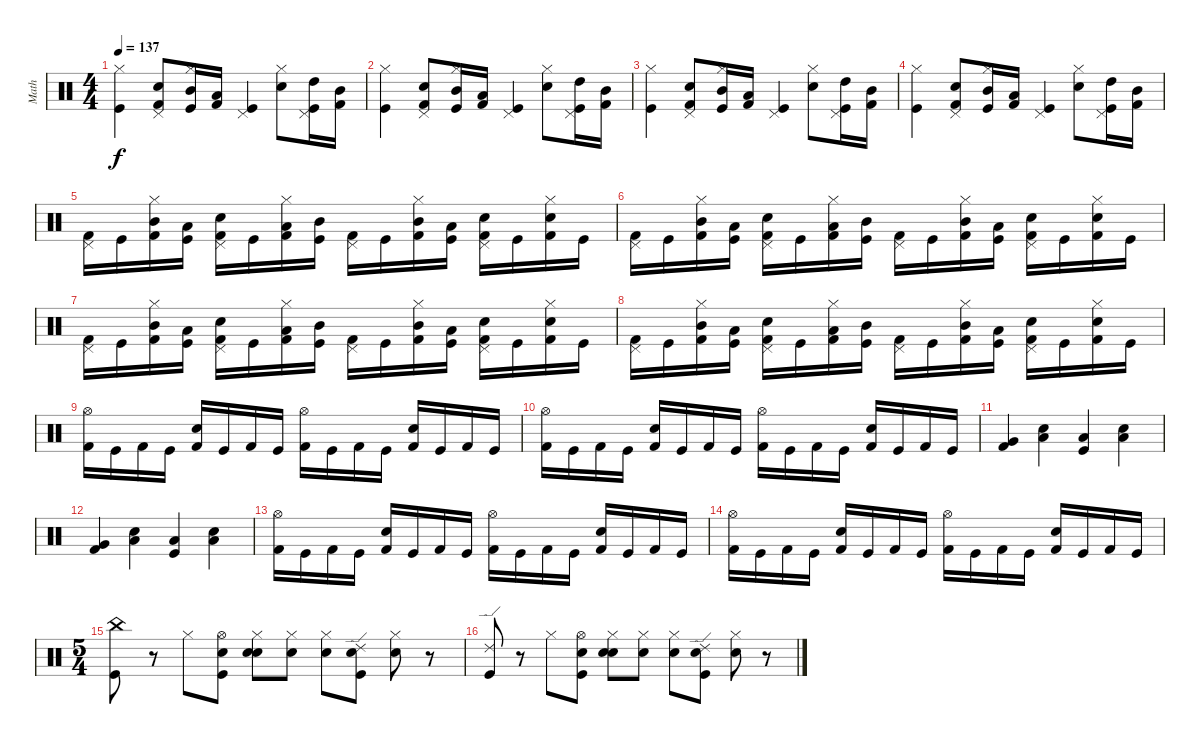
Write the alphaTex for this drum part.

\track ("Math" "Math") {instrument percussion}
\staff {score}
\articulation defaults
\ts (4 4)
\tempo 137
\clef neutral
\ks c
("Kick (hit)" "Hi-Hat (closed)").4{dy f} ("Snare (hit) 2" "Kick (hit) 2" "Pedal Hi-Hat (hit)").8 ("Mid Tom (hit)" "Kick (hit)" "Hi-Hat (closed)").16 ("Low Tom (hit)" "Kick (hit) 2").16 ("Kick (hit)" "Pedal Hi-Hat (hit)").4 ("Snare (hit) 2" "Hi-Hat (closed)").8 ("High Tom (hit)" "Kick (hit)" "Pedal Hi-Hat (hit)").16 ("Mid Tom (hit)" "Kick (hit) 2").16 |
("Kick (hit)" "Hi-Hat (closed)").4 ("Snare (hit) 2" "Kick (hit) 2" "Pedal Hi-Hat (hit)").8 ("Mid Tom (hit)" "Kick (hit)" "Hi-Hat (closed)").16 ("Low Tom (hit)" "Kick (hit) 2").16 ("Kick (hit)" "Pedal Hi-Hat (hit)").4 ("Snare (hit) 2" "Hi-Hat (closed)").8 ("High Tom (hit)" "Kick (hit)" "Pedal Hi-Hat (hit)").16 ("Mid Tom (hit)" "Kick (hit) 2").16 |
("Kick (hit)" "Hi-Hat (closed)").4 ("Snare (hit) 2" "Kick (hit) 2" "Pedal Hi-Hat (hit)").8 ("Mid Tom (hit)" "Kick (hit)" "Hi-Hat (closed)").16 ("Low Tom (hit)" "Kick (hit) 2").16 ("Kick (hit)" "Pedal Hi-Hat (hit)").4 ("Snare (hit) 2" "Hi-Hat (closed)").8 ("High Tom (hit)" "Kick (hit)" "Pedal Hi-Hat (hit)").16 ("Mid Tom (hit)" "Kick (hit) 2").16 |
("Kick (hit)" "Hi-Hat (closed)").4 ("Snare (hit) 2" "Kick (hit) 2" "Pedal Hi-Hat (hit)").8 ("Mid Tom (hit)" "Kick (hit)" "Hi-Hat (closed)").16 ("Low Tom (hit)" "Kick (hit) 2").16 ("Kick (hit)" "Pedal Hi-Hat (hit)").4 ("Snare (hit) 2" "Hi-Hat (closed)").8 ("High Tom (hit)" "Kick (hit)" "Pedal Hi-Hat (hit)").16 ("Mid Tom (hit)" "Kick (hit) 2").16 |
("Pedal Hi-Hat (hit)" "Kick (hit) 2").16 "Kick (hit)".16 ("Hi-Hat (closed)" "Mid Tom (hit)" "Kick (hit) 2").16 ("Low Tom (hit)" "Kick (hit)").16 ("Pedal Hi-Hat (hit)" "Snare (hit) 2" "Kick (hit) 2").16 "Kick (hit)".16 ("Hi-Hat (closed)" "Low Tom (hit)" "Kick (hit) 2").16 ("Mid Tom (hit)" "Kick (hit)").16 ("Pedal Hi-Hat (hit)" "Kick (hit) 2").16 "Kick (hit)".16 ("Hi-Hat (closed)" "Mid Tom (hit)" "Kick (hit) 2").16 ("Low Tom (hit)" "Kick (hit)").16 ("Pedal Hi-Hat (hit)" "Snare (hit) 2" "Kick (hit) 2").16 "Kick (hit)".16 ("Hi-Hat (closed)" "Snare (hit) 2" "Kick (hit) 2").16 "Kick (hit)".16 |
("Pedal Hi-Hat (hit)" "Kick (hit) 2").16 "Kick (hit)".16 ("Hi-Hat (closed)" "Mid Tom (hit)" "Kick (hit) 2").16 ("Low Tom (hit)" "Kick (hit)").16 ("Pedal Hi-Hat (hit)" "Snare (hit) 2" "Kick (hit) 2").16 "Kick (hit)".16 ("Hi-Hat (closed)" "Low Tom (hit)" "Kick (hit) 2").16 ("Mid Tom (hit)" "Kick (hit)").16 ("Pedal Hi-Hat (hit)" "Kick (hit) 2").16 "Kick (hit)".16 ("Hi-Hat (closed)" "Mid Tom (hit)" "Kick (hit) 2").16 ("Low Tom (hit)" "Kick (hit)").16 ("Pedal Hi-Hat (hit)" "Snare (hit) 2" "Kick (hit) 2").16 "Kick (hit)".16 ("Hi-Hat (closed)" "Snare (hit) 2" "Kick (hit) 2").16 "Kick (hit)".16 |
("Pedal Hi-Hat (hit)" "Kick (hit) 2").16 "Kick (hit)".16 ("Hi-Hat (closed)" "Mid Tom (hit)" "Kick (hit) 2").16 ("Low Tom (hit)" "Kick (hit)").16 ("Pedal Hi-Hat (hit)" "Snare (hit) 2" "Kick (hit) 2").16 "Kick (hit)".16 ("Hi-Hat (closed)" "Low Tom (hit)" "Kick (hit) 2").16 ("Mid Tom (hit)" "Kick (hit)").16 ("Pedal Hi-Hat (hit)" "Kick (hit) 2").16 "Kick (hit)".16 ("Hi-Hat (closed)" "Mid Tom (hit)" "Kick (hit) 2").16 ("Low Tom (hit)" "Kick (hit)").16 ("Pedal Hi-Hat (hit)" "Snare (hit) 2" "Kick (hit) 2").16 "Kick (hit)".16 ("Hi-Hat (closed)" "Snare (hit) 2" "Kick (hit) 2").16 "Kick (hit)".16 |
("Pedal Hi-Hat (hit)" "Kick (hit) 2").16 "Kick (hit)".16 ("Hi-Hat (closed)" "Mid Tom (hit)" "Kick (hit) 2").16 ("Low Tom (hit)" "Kick (hit)").16 ("Pedal Hi-Hat (hit)" "Snare (hit) 2" "Kick (hit) 2").16 "Kick (hit)".16 ("Hi-Hat (closed)" "Low Tom (hit)" "Kick (hit) 2").16 ("Mid Tom (hit)" "Kick (hit)").16 ("Pedal Hi-Hat (hit)" "Kick (hit) 2").16 "Kick (hit)".16 ("Hi-Hat (closed)" "Mid Tom (hit)" "Kick (hit) 2").16 ("Low Tom (hit)" "Kick (hit)").16 ("Pedal Hi-Hat (hit)" "Snare (hit) 2" "Kick (hit) 2").16 "Kick (hit)".16 ("Hi-Hat (closed)" "Snare (hit) 2" "Kick (hit) 2").16 "Kick (hit)".16 |
("Hi-Hat (open)" "Kick (hit) 2").16 "Kick (hit)".16 "Kick (hit) 2".16 "Kick (hit)".16 ("Snare (hit) 2" "Kick (hit) 2").16 "Kick (hit)".16 "Kick (hit) 2".16 "Kick (hit)".16 ("Hi-Hat (open)" "Kick (hit) 2").16 "Kick (hit)".16 "Kick (hit) 2".16 "Kick (hit)".16 ("Snare (hit) 2" "Kick (hit) 2").16 "Kick (hit)".16 "Kick (hit) 2".16 "Kick (hit)".16 |
("Hi-Hat (open)" "Kick (hit) 2").16 "Kick (hit)".16 "Kick (hit) 2".16 "Kick (hit)".16 ("Snare (hit) 2" "Kick (hit) 2").16 "Kick (hit)".16 "Kick (hit) 2".16 "Kick (hit)".16 ("Hi-Hat (open)" "Kick (hit) 2").16 "Kick (hit)".16 "Kick (hit) 2".16 "Kick (hit)".16 ("Snare (hit) 2" "Kick (hit) 2").16 "Kick (hit)".16 "Kick (hit) 2".16 "Kick (hit)".16 |
("Very Low Tom (hit)" "Kick (hit) 2").4 ("Low Floor Tom (hit)" "Snare (hit) 2").4 ("Low Tom (hit)" "Kick (hit)").4 ("Low Floor Tom (hit)" "Snare (hit) 2").4 |
("Very Low Tom (hit)" "Kick (hit) 2").4 ("Low Floor Tom (hit)" "Snare (hit) 2").4 ("Low Tom (hit)" "Kick (hit)").4 ("Low Floor Tom (hit)" "Snare (hit) 2").4 |
("Hi-Hat (open)" "Kick (hit) 2").16 "Kick (hit)".16 "Kick (hit) 2".16 "Kick (hit)".16 ("Snare (hit) 2" "Kick (hit) 2").16 "Kick (hit)".16 "Kick (hit) 2".16 "Kick (hit)".16 ("Hi-Hat (open)" "Kick (hit) 2").16 "Kick (hit)".16 "Kick (hit) 2".16 "Kick (hit)".16 ("Snare (hit) 2" "Kick (hit) 2").16 "Kick (hit)".16 "Kick (hit) 2".16 "Kick (hit)".16 |
("Hi-Hat (open)" "Kick (hit) 2").16 "Kick (hit)".16 "Kick (hit) 2".16 "Kick (hit)".16 ("Snare (hit) 2" "Kick (hit) 2").16 "Kick (hit)".16 "Kick (hit) 2".16 "Kick (hit)".16 ("Hi-Hat (open)" "Kick (hit) 2").16 "Kick (hit)".16 "Kick (hit) 2".16 "Kick (hit)".16 ("Snare (hit) 2" "Kick (hit) 2").16 "Kick (hit)".16 "Kick (hit) 2".16 "Kick (hit)".16 |
\ts (5 4)
("Kick (hit)" "China (hit)").8 r.8 "Hi-Hat (closed)".8 ("Snare (hit)" "Kick (hit)" "Hi-Hat (open)").8 ("Snare (hit)" "Snare (hit) 2" "Hi-Hat (closed)").8 ("Snare (hit)" "Hi-Hat (closed)").8 ("Snare (hit)" "Hi-Hat (closed)").8 ("Snare (hit)" "Kick (hit)" "Ride (edge) 2").8 ("Snare (hit)" "Hi-Hat (closed)").8 r.8 |
("Kick (hit)" "Ride (edge) 2").8 r.8 "Hi-Hat (closed)".8 ("Snare (hit)" "Kick (hit)" "Hi-Hat (open)").8 ("Snare (hit)" "Snare (hit) 2" "Hi-Hat (closed)").8 ("Snare (hit)" "Hi-Hat (closed)").8 ("Snare (hit)" "Hi-Hat (closed)").8 ("Snare (hit)" "Kick (hit)" "Ride (edge) 2").8 ("Snare (hit)" "Hi-Hat (closed)").8 r.8
